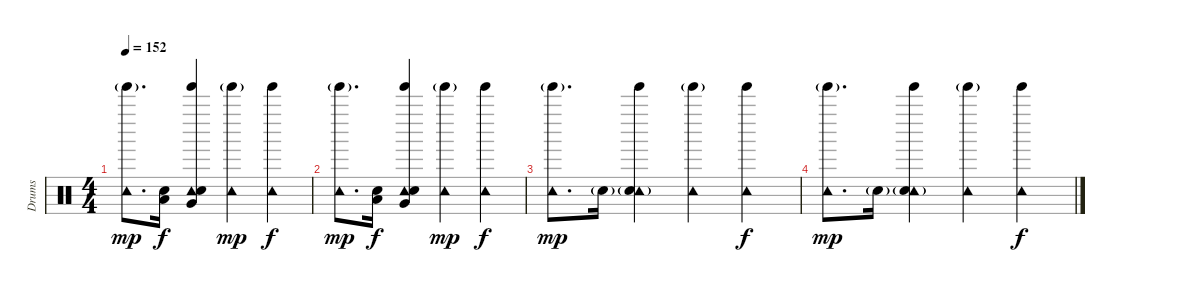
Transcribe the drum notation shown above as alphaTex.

\track ("Drums" "Drums") {instrument percussion}
\staff {score}
\articulation defaults
\ts (4 4)
\tempo 152
\clef neutral
\ks c
("Tambourine (hit)" "Tinkle Bell (hit)"{g}).8{d dy mp} ("Snare (hit) 2" "Low Tom (hit)").16{dy f} ("Tambourine (hit)" "Tinkle Bell (hit)" "Snare (hit) 2" "Very Low Tom (hit)").4 ("Tambourine (hit)" "Tinkle Bell (hit)"{g}).4{dy mp} ("Tambourine (hit)" "Tinkle Bell (hit)").4{dy f} |
("Tambourine (hit)" "Tinkle Bell (hit)"{g}).8{d dy mp} ("Snare (hit) 2" "Low Tom (hit)").16{dy f} ("Tambourine (hit)" "Tinkle Bell (hit)" "Snare (hit) 2" "Very Low Tom (hit)").4 ("Tambourine (hit)" "Tinkle Bell (hit)"{g}).4{dy mp} ("Tambourine (hit)" "Tinkle Bell (hit)").4{dy f} |
("Tambourine (hit)" "Tinkle Bell (hit)"{g}).8{d dy mp} "Snare (hit) 2"{g}.16 ("Tambourine (hit)" "Tinkle Bell (hit)" "Snare (hit) 2"{g}).4 ("Tambourine (hit)" "Tinkle Bell (hit)"{g}).4 ("Tambourine (hit)" "Tinkle Bell (hit)").4{dy f} |
("Tambourine (hit)" "Tinkle Bell (hit)"{g}).8{d dy mp} "Snare (hit) 2"{g}.16 ("Tambourine (hit)" "Tinkle Bell (hit)" "Snare (hit) 2"{g}).4 ("Tambourine (hit)" "Tinkle Bell (hit)"{g}).4 ("Tambourine (hit)" "Tinkle Bell (hit)").4{dy f}
